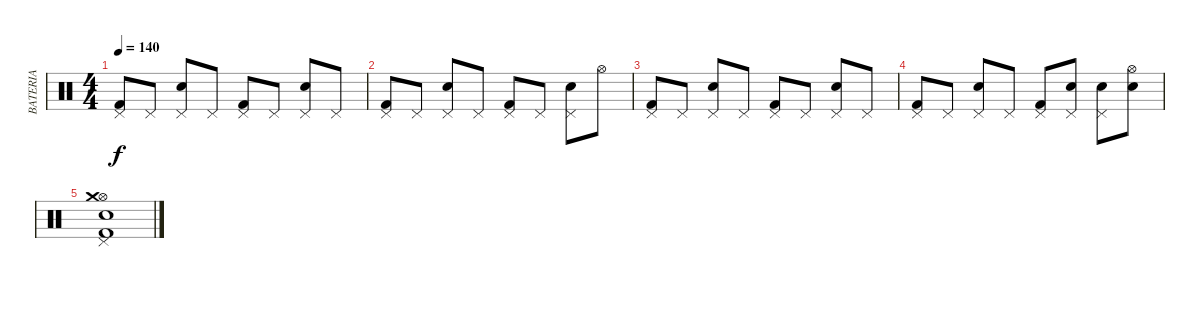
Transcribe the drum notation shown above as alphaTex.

\track ("BATERIA" "BATERIA") {instrument percussion}
\staff {score}
\articulation defaults
\ts (4 4)
\tempo 140
\clef neutral
\ks c
("Kick (hit) 2" "Pedal Hi-Hat (hit)").8{dy f} "Pedal Hi-Hat (hit)".8 ("Snare (hit) 2" "Pedal Hi-Hat (hit)").8 "Pedal Hi-Hat (hit)".8 ("Kick (hit) 2" "Pedal Hi-Hat (hit)").8 "Pedal Hi-Hat (hit)".8 ("Snare (hit) 2" "Pedal Hi-Hat (hit)").8 "Pedal Hi-Hat (hit)".8 |
("Kick (hit) 2" "Pedal Hi-Hat (hit)").8 "Pedal Hi-Hat (hit)".8 ("Snare (hit) 2" "Pedal Hi-Hat (hit)").8 "Pedal Hi-Hat (hit)".8 ("Kick (hit) 2" "Pedal Hi-Hat (hit)").8 "Pedal Hi-Hat (hit)".8 ("Snare (hit) 2" "Pedal Hi-Hat (hit)").8 "Hi-Hat (open)".8 |
("Kick (hit) 2" "Pedal Hi-Hat (hit)").8 "Pedal Hi-Hat (hit)".8 ("Snare (hit) 2" "Pedal Hi-Hat (hit)").8 "Pedal Hi-Hat (hit)".8 ("Kick (hit) 2" "Pedal Hi-Hat (hit)").8 "Pedal Hi-Hat (hit)".8 ("Snare (hit) 2" "Pedal Hi-Hat (hit)").8 "Pedal Hi-Hat (hit)".8 |
("Kick (hit) 2" "Pedal Hi-Hat (hit)").8 "Pedal Hi-Hat (hit)".8 ("Snare (hit) 2" "Pedal Hi-Hat (hit)").8 "Pedal Hi-Hat (hit)".8 ("Kick (hit) 2" "Pedal Hi-Hat (hit)").8 ("Snare (hit) 2" "Pedal Hi-Hat (hit)").8 ("Snare (hit) 2" "Pedal Hi-Hat (hit)").8 ("Snare (hit) 2" "Hi-Hat (open)").8 |
("Kick (hit) 2" "Snare (hit) 2" "Pedal Hi-Hat (hit)" "Hi-Hat (open)" "Crash medium (hit)").1
